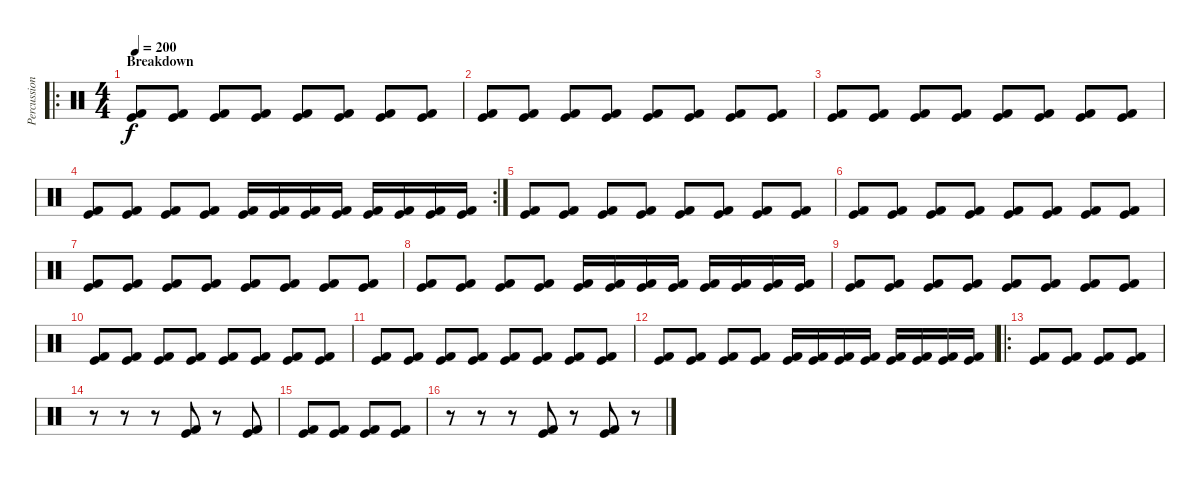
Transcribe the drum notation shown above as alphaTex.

\track ("Percussion" "Percussion") {instrument percussion}
\staff {score}
\articulation defaults
\ro
\ts (4 4)
\section ("" "Breakdown")
\tempo 200
\clef neutral
\ks c
("Kick (hit) 2" "Kick (hit)").8{dy f} ("Kick (hit) 2" "Kick (hit)").8 ("Kick (hit) 2" "Kick (hit)").8 ("Kick (hit) 2" "Kick (hit)").8 ("Kick (hit) 2" "Kick (hit)").8 ("Kick (hit) 2" "Kick (hit)").8 ("Kick (hit) 2" "Kick (hit)").8 ("Kick (hit) 2" "Kick (hit)").8 |
("Kick (hit) 2" "Kick (hit)").8 ("Kick (hit) 2" "Kick (hit)").8 ("Kick (hit) 2" "Kick (hit)").8 ("Kick (hit) 2" "Kick (hit)").8 ("Kick (hit) 2" "Kick (hit)").8 ("Kick (hit) 2" "Kick (hit)").8 ("Kick (hit) 2" "Kick (hit)").8 ("Kick (hit) 2" "Kick (hit)").8 |
("Kick (hit) 2" "Kick (hit)").8 ("Kick (hit) 2" "Kick (hit)").8 ("Kick (hit) 2" "Kick (hit)").8 ("Kick (hit) 2" "Kick (hit)").8 ("Kick (hit) 2" "Kick (hit)").8 ("Kick (hit) 2" "Kick (hit)").8 ("Kick (hit) 2" "Kick (hit)").8 ("Kick (hit) 2" "Kick (hit)").8 |
\rc 2
("Kick (hit) 2" "Kick (hit)").8 ("Kick (hit) 2" "Kick (hit)").8 ("Kick (hit) 2" "Kick (hit)").8 ("Kick (hit) 2" "Kick (hit)").8 ("Kick (hit) 2" "Kick (hit)").16 ("Kick (hit) 2" "Kick (hit)").16 ("Kick (hit) 2" "Kick (hit)").16 ("Kick (hit) 2" "Kick (hit)").16 ("Kick (hit) 2" "Kick (hit)").16 ("Kick (hit) 2" "Kick (hit)").16 ("Kick (hit) 2" "Kick (hit)").16 ("Kick (hit) 2" "Kick (hit)").16 |
("Kick (hit) 2" "Kick (hit)").8 ("Kick (hit) 2" "Kick (hit)").8 ("Kick (hit) 2" "Kick (hit)").8 ("Kick (hit) 2" "Kick (hit)").8 ("Kick (hit) 2" "Kick (hit)").8 ("Kick (hit) 2" "Kick (hit)").8 ("Kick (hit) 2" "Kick (hit)").8 ("Kick (hit) 2" "Kick (hit)").8 |
("Kick (hit) 2" "Kick (hit)").8 ("Kick (hit) 2" "Kick (hit)").8 ("Kick (hit) 2" "Kick (hit)").8 ("Kick (hit) 2" "Kick (hit)").8 ("Kick (hit) 2" "Kick (hit)").8 ("Kick (hit) 2" "Kick (hit)").8 ("Kick (hit) 2" "Kick (hit)").8 ("Kick (hit) 2" "Kick (hit)").8 |
("Kick (hit) 2" "Kick (hit)").8 ("Kick (hit) 2" "Kick (hit)").8 ("Kick (hit) 2" "Kick (hit)").8 ("Kick (hit) 2" "Kick (hit)").8 ("Kick (hit) 2" "Kick (hit)").8 ("Kick (hit) 2" "Kick (hit)").8 ("Kick (hit) 2" "Kick (hit)").8 ("Kick (hit) 2" "Kick (hit)").8 |
("Kick (hit) 2" "Kick (hit)").8 ("Kick (hit) 2" "Kick (hit)").8 ("Kick (hit) 2" "Kick (hit)").8 ("Kick (hit) 2" "Kick (hit)").8 ("Kick (hit) 2" "Kick (hit)").16 ("Kick (hit) 2" "Kick (hit)").16 ("Kick (hit) 2" "Kick (hit)").16 ("Kick (hit) 2" "Kick (hit)").16 ("Kick (hit) 2" "Kick (hit)").16 ("Kick (hit) 2" "Kick (hit)").16 ("Kick (hit) 2" "Kick (hit)").16 ("Kick (hit) 2" "Kick (hit)").16 |
("Kick (hit) 2" "Kick (hit)").8 ("Kick (hit) 2" "Kick (hit)").8 ("Kick (hit) 2" "Kick (hit)").8 ("Kick (hit) 2" "Kick (hit)").8 ("Kick (hit) 2" "Kick (hit)").8 ("Kick (hit) 2" "Kick (hit)").8 ("Kick (hit) 2" "Kick (hit)").8 ("Kick (hit) 2" "Kick (hit)").8 |
("Kick (hit) 2" "Kick (hit)").8 ("Kick (hit) 2" "Kick (hit)").8 ("Kick (hit) 2" "Kick (hit)").8 ("Kick (hit) 2" "Kick (hit)").8 ("Kick (hit) 2" "Kick (hit)").8 ("Kick (hit) 2" "Kick (hit)").8 ("Kick (hit) 2" "Kick (hit)").8 ("Kick (hit) 2" "Kick (hit)").8 |
("Kick (hit) 2" "Kick (hit)").8 ("Kick (hit) 2" "Kick (hit)").8 ("Kick (hit) 2" "Kick (hit)").8 ("Kick (hit) 2" "Kick (hit)").8 ("Kick (hit) 2" "Kick (hit)").8 ("Kick (hit) 2" "Kick (hit)").8 ("Kick (hit) 2" "Kick (hit)").8 ("Kick (hit) 2" "Kick (hit)").8 |
("Kick (hit) 2" "Kick (hit)").8 ("Kick (hit) 2" "Kick (hit)").8 ("Kick (hit) 2" "Kick (hit)").8 ("Kick (hit) 2" "Kick (hit)").8 ("Kick (hit) 2" "Kick (hit)").16 ("Kick (hit) 2" "Kick (hit)").16 ("Kick (hit) 2" "Kick (hit)").16 ("Kick (hit) 2" "Kick (hit)").16 ("Kick (hit) 2" "Kick (hit)").16 ("Kick (hit) 2" "Kick (hit)").16 ("Kick (hit) 2" "Kick (hit)").16 ("Kick (hit) 2" "Kick (hit)").16 |
\ro
("Kick (hit) 2" "Kick (hit)").8 ("Kick (hit) 2" "Kick (hit)").8 ("Kick (hit) 2" "Kick (hit)").8 ("Kick (hit) 2" "Kick (hit)").8 |
r.8 r.8 r.8 ("Kick (hit) 2" "Kick (hit)").8 r.8 ("Kick (hit) 2" "Kick (hit)").8 |
("Kick (hit) 2" "Kick (hit)").8 ("Kick (hit) 2" "Kick (hit)").8 ("Kick (hit) 2" "Kick (hit)").8 ("Kick (hit) 2" "Kick (hit)").8 |
r.8 r.8 r.8 ("Kick (hit) 2" "Kick (hit)").8 r.8 ("Kick (hit) 2" "Kick (hit)").8 r.8
